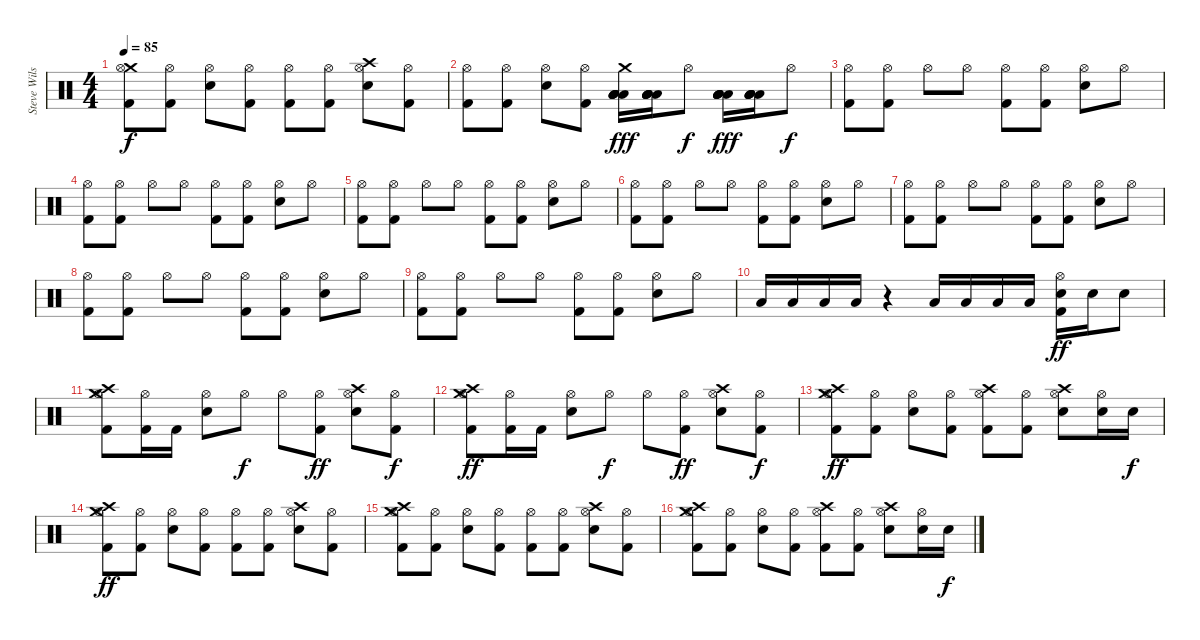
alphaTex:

\track ("Steve Wilson" "Steve Wils") {instrument percussion}
\staff {score}
\articulation defaults
\ts (4 4)
\tempo 85
\clef neutral
\ks c
("Crash medium (hit)" "Hi-Hat (open)" "Kick (hit) 2").8{dy f} ("Hi-Hat (open)" "Kick (hit) 2").8 ("Hi-Hat (open)" "Snare (hit) 2").8 ("Hi-Hat (open)" "Kick (hit) 2").8 ("Hi-Hat (open)" "Kick (hit) 2").8 ("Hi-Hat (open)" "Kick (hit) 2").8 ("Crash high (hit)" "Hi-Hat (open)" "Snare (hit) 2").8 ("Hi-Hat (open)" "Kick (hit) 2").8 |
("Hi-Hat (open)" "Kick (hit) 2").8 ("Hi-Hat (open)" "Kick (hit) 2").8 ("Hi-Hat (open)" "Snare (hit) 2").8 ("Hi-Hat (open)" "Kick (hit) 2").8 ("Crash medium (hit)" "Low Tom (hit)" "Low Tom (hit)" "Low Tom (hit)" "Low Tom (hit)" "Low Tom (hit)").16{dy fff} ("Low Tom (hit)" "Low Tom (hit)" "Low Tom (hit)" "Low Tom (hit)" "Low Tom (hit)").16 "Hi-Hat (open)".8{dy f} ("Low Tom (hit)" "Low Tom (hit)" "Low Tom (hit)" "Low Tom (hit)" "Low Tom (hit)").16{dy fff} ("Low Tom (hit)" "Low Tom (hit)" "Low Tom (hit)" "Low Tom (hit)" "Low Tom (hit)").16 "Hi-Hat (open)".8{dy f} |
("Hi-Hat (open)" "Kick (hit) 2").8 ("Hi-Hat (open)" "Kick (hit) 2").8 "Hi-Hat (open)".8{volume 6} "Hi-Hat (open)".8{volume 13} ("Hi-Hat (open)" "Kick (hit) 2").8 ("Hi-Hat (open)" "Kick (hit) 2").8 ("Hi-Hat (open)" "Snare (hit) 2").8 "Hi-Hat (open)".8 |
("Hi-Hat (open)" "Kick (hit) 2").8 ("Hi-Hat (open)" "Kick (hit) 2").8 "Hi-Hat (open)".8{volume 6} "Hi-Hat (open)".8{volume 13} ("Hi-Hat (open)" "Kick (hit) 2").8 ("Hi-Hat (open)" "Kick (hit) 2").8 ("Hi-Hat (open)" "Snare (hit) 2").8 "Hi-Hat (open)".8 |
("Hi-Hat (open)" "Kick (hit) 2").8 ("Hi-Hat (open)" "Kick (hit) 2").8 "Hi-Hat (open)".8{volume 6} "Hi-Hat (open)".8{volume 13} ("Hi-Hat (open)" "Kick (hit) 2").8 ("Hi-Hat (open)" "Kick (hit) 2").8 ("Hi-Hat (open)" "Snare (hit) 2").8 "Hi-Hat (open)".8 |
("Hi-Hat (open)" "Kick (hit) 2").8 ("Hi-Hat (open)" "Kick (hit) 2").8 "Hi-Hat (open)".8{volume 6} "Hi-Hat (open)".8{volume 13} ("Hi-Hat (open)" "Kick (hit) 2").8 ("Hi-Hat (open)" "Kick (hit) 2").8 ("Hi-Hat (open)" "Snare (hit) 2").8 "Hi-Hat (open)".8 |
("Hi-Hat (open)" "Kick (hit) 2").8 ("Hi-Hat (open)" "Kick (hit) 2").8 "Hi-Hat (open)".8{volume 6} "Hi-Hat (open)".8{volume 13} ("Hi-Hat (open)" "Kick (hit) 2").8 ("Hi-Hat (open)" "Kick (hit) 2").8 ("Hi-Hat (open)" "Snare (hit) 2").8 "Hi-Hat (open)".8 |
("Hi-Hat (open)" "Kick (hit) 2").8 ("Hi-Hat (open)" "Kick (hit) 2").8 "Hi-Hat (open)".8{volume 6} "Hi-Hat (open)".8{volume 13} ("Hi-Hat (open)" "Kick (hit) 2").8 ("Hi-Hat (open)" "Kick (hit) 2").8 ("Hi-Hat (open)" "Snare (hit) 2").8 "Hi-Hat (open)".8 |
("Hi-Hat (open)" "Kick (hit) 2").8 ("Hi-Hat (open)" "Kick (hit) 2").8 "Hi-Hat (open)".8{volume 6} "Hi-Hat (open)".8{volume 13} ("Hi-Hat (open)" "Kick (hit) 2").8 ("Hi-Hat (open)" "Kick (hit) 2").8 ("Hi-Hat (open)" "Snare (hit) 2").8 "Hi-Hat (open)".8 |
"Low Tom (hit)".16 "Low Tom (hit)".16 "Low Tom (hit)".16 "Low Tom (hit)".16 r.4 "Low Tom (hit)".16 "Low Tom (hit)".16 "Low Tom (hit)".16 "Low Tom (hit)".16 ("Hi-Hat (open)" "Kick (hit) 2" "Snare (hit) 2").16{dy ff} "Snare (hit) 2".16 "Snare (hit) 2".8 |
("Crash high (hit)" "Crash medium (hit)" "Hi-Hat (open)" "Kick (hit) 2").8 ("Hi-Hat (open)" "Kick (hit) 2").16 "Kick (hit) 2".16 ("Hi-Hat (open)" "Snare (hit) 2").8 "Hi-Hat (open)".8{dy f} "Hi-Hat (open)".8 ("Hi-Hat (open)" "Kick (hit) 2").8{dy ff} ("Crash high (hit)" "Hi-Hat (open)" "Snare (hit) 2").8 ("Hi-Hat (open)" "Kick (hit) 2").8{dy f} |
("Crash high (hit)" "Crash medium (hit)" "Hi-Hat (open)" "Kick (hit) 2").8{dy ff} ("Hi-Hat (open)" "Kick (hit) 2").16 "Kick (hit) 2".16 ("Hi-Hat (open)" "Snare (hit) 2").8 "Hi-Hat (open)".8{dy f} "Hi-Hat (open)".8 ("Hi-Hat (open)" "Kick (hit) 2").8{dy ff} ("Crash high (hit)" "Hi-Hat (open)" "Snare (hit) 2").8 ("Hi-Hat (open)" "Kick (hit) 2").8{dy f} |
("Crash high (hit)" "Crash medium (hit)" "Hi-Hat (open)" "Kick (hit) 2").8{dy ff} ("Hi-Hat (open)" "Kick (hit) 2").8 ("Hi-Hat (open)" "Snare (hit) 2").8 ("Hi-Hat (open)" "Kick (hit) 2").8 ("Crash high (hit)" "Hi-Hat (open)" "Kick (hit) 2").8 ("Hi-Hat (open)" "Kick (hit) 2").8 ("Crash high (hit)" "Hi-Hat (open)" "Snare (hit) 2").8 ("Hi-Hat (open)" "Snare (hit) 2").16 "Snare (hit) 2".16{dy f} |
("Crash high (hit)" "Crash medium (hit)" "Hi-Hat (open)" "Kick (hit) 2").8{dy ff} ("Hi-Hat (open)" "Kick (hit) 2").8 ("Hi-Hat (open)" "Snare (hit) 2").8 ("Hi-Hat (open)" "Kick (hit) 2").8 ("Hi-Hat (open)" "Kick (hit) 2").8 ("Hi-Hat (open)" "Kick (hit) 2").8 ("Crash high (hit)" "Hi-Hat (open)" "Snare (hit) 2").8 ("Hi-Hat (open)" "Kick (hit) 2").8 |
("Crash high (hit)" "Crash medium (hit)" "Hi-Hat (open)" "Kick (hit) 2").8 ("Hi-Hat (open)" "Kick (hit) 2").8 ("Hi-Hat (open)" "Snare (hit) 2").8 ("Hi-Hat (open)" "Kick (hit) 2").8 ("Hi-Hat (open)" "Kick (hit) 2").8 ("Hi-Hat (open)" "Kick (hit) 2").8 ("Crash high (hit)" "Hi-Hat (open)" "Snare (hit) 2").8 ("Hi-Hat (open)" "Kick (hit) 2").8 |
("Crash high (hit)" "Crash medium (hit)" "Hi-Hat (open)" "Kick (hit) 2").8 ("Hi-Hat (open)" "Kick (hit) 2").8 ("Hi-Hat (open)" "Snare (hit) 2").8 ("Hi-Hat (open)" "Kick (hit) 2").8 ("Crash high (hit)" "Hi-Hat (open)" "Kick (hit) 2").8 ("Hi-Hat (open)" "Kick (hit) 2").8 ("Crash high (hit)" "Hi-Hat (open)" "Snare (hit) 2").8 ("Hi-Hat (open)" "Snare (hit) 2").16 "Snare (hit) 2".16{dy f}
